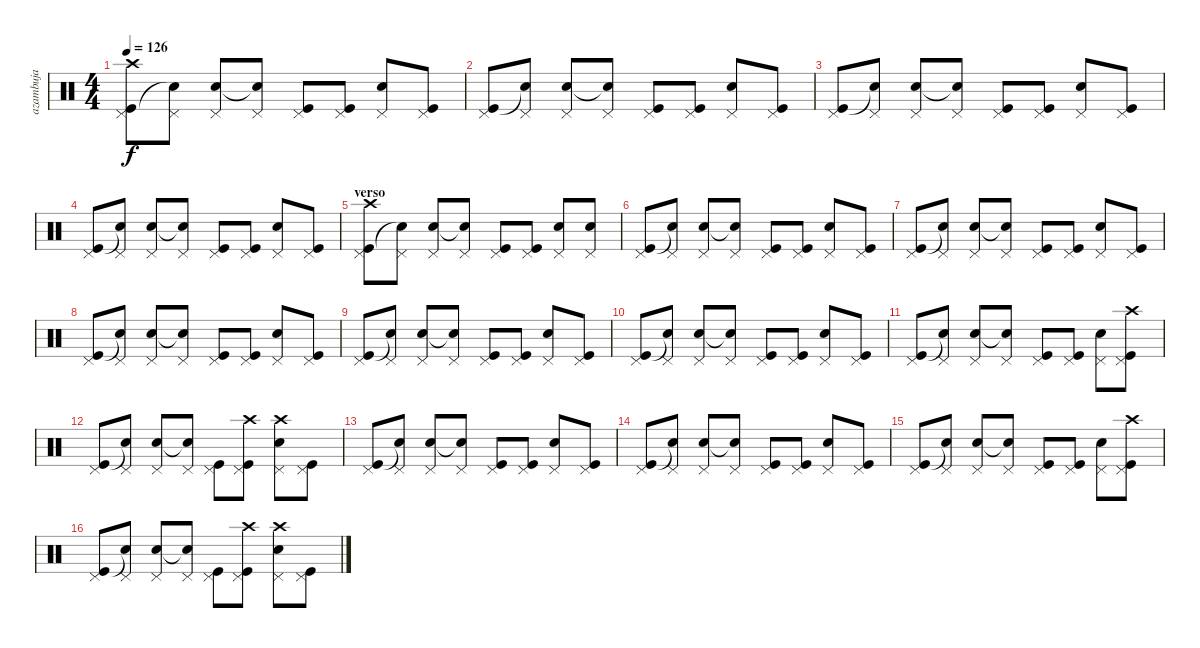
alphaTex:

\track ("azambuja" "azambuja") {instrument percussion}
\staff {score}
\articulation defaults
\ts (4 4)
\tempo 126
\clef neutral
\ks c
("Crash high (hit)" "Pedal Hi-Hat (hit)" "Kick (hit)").8{dy f} ("Pedal Hi-Hat (hit)" "Snare (hit)"{t}).8 ("Pedal Hi-Hat (hit)" "Snare (hit) 2").8 ("Pedal Hi-Hat (hit)" "Snare (hit) 2"{t}).8 ("Pedal Hi-Hat (hit)" "Kick (hit)").8 ("Pedal Hi-Hat (hit)" "Kick (hit)").8 ("Pedal Hi-Hat (hit)" "Snare (hit) 2").8 ("Pedal Hi-Hat (hit)" "Kick (hit)").8 |
("Pedal Hi-Hat (hit)" "Kick (hit)").8 ("Pedal Hi-Hat (hit)" "Snare (hit)"{t}).8 ("Pedal Hi-Hat (hit)" "Snare (hit) 2").8 ("Pedal Hi-Hat (hit)" "Snare (hit) 2"{t}).8 ("Pedal Hi-Hat (hit)" "Kick (hit)").8 ("Pedal Hi-Hat (hit)" "Kick (hit)").8 ("Pedal Hi-Hat (hit)" "Snare (hit) 2").8 ("Pedal Hi-Hat (hit)" "Kick (hit)").8 |
("Pedal Hi-Hat (hit)" "Kick (hit)").8 ("Pedal Hi-Hat (hit)" "Snare (hit)"{t}).8 ("Pedal Hi-Hat (hit)" "Snare (hit) 2").8 ("Pedal Hi-Hat (hit)" "Snare (hit) 2"{t}).8 ("Pedal Hi-Hat (hit)" "Kick (hit)").8 ("Pedal Hi-Hat (hit)" "Kick (hit)").8 ("Pedal Hi-Hat (hit)" "Snare (hit) 2").8 ("Pedal Hi-Hat (hit)" "Kick (hit)").8 |
("Pedal Hi-Hat (hit)" "Kick (hit)").8 ("Pedal Hi-Hat (hit)" "Snare (hit)"{t}).8 ("Pedal Hi-Hat (hit)" "Snare (hit) 2").8 ("Pedal Hi-Hat (hit)" "Snare (hit) 2"{t}).8 ("Pedal Hi-Hat (hit)" "Kick (hit)").8 ("Pedal Hi-Hat (hit)" "Kick (hit)").8 ("Pedal Hi-Hat (hit)" "Snare (hit) 2").8 ("Pedal Hi-Hat (hit)" "Kick (hit)").8 |
\section ("" "verso")
("Crash high (hit)" "Pedal Hi-Hat (hit)" "Kick (hit)").8 ("Pedal Hi-Hat (hit)" "Snare (hit)"{t}).8 ("Pedal Hi-Hat (hit)" "Snare (hit) 2").8 ("Pedal Hi-Hat (hit)" "Snare (hit) 2"{t}).8 ("Pedal Hi-Hat (hit)" "Kick (hit)").8 ("Pedal Hi-Hat (hit)" "Kick (hit)").8 ("Pedal Hi-Hat (hit)" "Snare (hit) 2").8 ("Pedal Hi-Hat (hit)" "Snare (hit) 2").8 |
("Pedal Hi-Hat (hit)" "Kick (hit)").8 ("Pedal Hi-Hat (hit)" "Snare (hit)"{t}).8 ("Pedal Hi-Hat (hit)" "Snare (hit) 2").8 ("Pedal Hi-Hat (hit)" "Snare (hit) 2"{t}).8 ("Pedal Hi-Hat (hit)" "Kick (hit)").8 ("Pedal Hi-Hat (hit)" "Kick (hit)").8 ("Pedal Hi-Hat (hit)" "Snare (hit) 2").8 ("Pedal Hi-Hat (hit)" "Kick (hit)").8 |
("Pedal Hi-Hat (hit)" "Kick (hit)").8 ("Pedal Hi-Hat (hit)" "Snare (hit)"{t}).8 ("Pedal Hi-Hat (hit)" "Snare (hit) 2").8 ("Pedal Hi-Hat (hit)" "Snare (hit) 2"{t}).8 ("Pedal Hi-Hat (hit)" "Kick (hit)").8 ("Pedal Hi-Hat (hit)" "Kick (hit)").8 ("Pedal Hi-Hat (hit)" "Snare (hit) 2").8 ("Pedal Hi-Hat (hit)" "Kick (hit)").8 |
("Pedal Hi-Hat (hit)" "Kick (hit)").8 ("Pedal Hi-Hat (hit)" "Snare (hit)"{t}).8 ("Pedal Hi-Hat (hit)" "Snare (hit) 2").8 ("Pedal Hi-Hat (hit)" "Snare (hit) 2"{t}).8 ("Pedal Hi-Hat (hit)" "Kick (hit)").8 ("Pedal Hi-Hat (hit)" "Kick (hit)").8 ("Pedal Hi-Hat (hit)" "Snare (hit) 2").8 ("Pedal Hi-Hat (hit)" "Kick (hit)").8 |
("Pedal Hi-Hat (hit)" "Kick (hit)").8 ("Pedal Hi-Hat (hit)" "Snare (hit)"{t}).8 ("Pedal Hi-Hat (hit)" "Snare (hit) 2").8 ("Pedal Hi-Hat (hit)" "Snare (hit) 2"{t}).8 ("Pedal Hi-Hat (hit)" "Kick (hit)").8 ("Pedal Hi-Hat (hit)" "Kick (hit)").8 ("Pedal Hi-Hat (hit)" "Snare (hit) 2").8 ("Pedal Hi-Hat (hit)" "Kick (hit)").8 |
("Pedal Hi-Hat (hit)" "Kick (hit)").8 ("Pedal Hi-Hat (hit)" "Snare (hit)"{t}).8 ("Pedal Hi-Hat (hit)" "Snare (hit) 2").8 ("Pedal Hi-Hat (hit)" "Snare (hit) 2"{t}).8 ("Pedal Hi-Hat (hit)" "Kick (hit)").8 ("Pedal Hi-Hat (hit)" "Kick (hit)").8 ("Pedal Hi-Hat (hit)" "Snare (hit) 2").8 ("Pedal Hi-Hat (hit)" "Kick (hit)").8 |
("Pedal Hi-Hat (hit)" "Kick (hit)").8 ("Pedal Hi-Hat (hit)" "Snare (hit)"{t}).8 ("Pedal Hi-Hat (hit)" "Snare (hit) 2").8 ("Pedal Hi-Hat (hit)" "Snare (hit) 2"{t}).8 ("Pedal Hi-Hat (hit)" "Kick (hit)").8 ("Pedal Hi-Hat (hit)" "Kick (hit)").8 ("Pedal Hi-Hat (hit)" "Snare (hit) 2").8 ("Crash high (hit)" "Pedal Hi-Hat (hit)" "Kick (hit)").8 |
("Pedal Hi-Hat (hit)" "Kick (hit)").8 ("Pedal Hi-Hat (hit)" "Snare (hit)"{t}).8 ("Pedal Hi-Hat (hit)" "Snare (hit) 2").8 ("Pedal Hi-Hat (hit)" "Snare (hit) 2"{t}).8 ("Pedal Hi-Hat (hit)" "Kick (hit)").8 ("Crash high (hit)" "Pedal Hi-Hat (hit)" "Kick (hit)").8 ("Crash high (hit)" "Pedal Hi-Hat (hit)" "Snare (hit) 2").8 ("Pedal Hi-Hat (hit)" "Kick (hit)").8 |
\section ("" "")
("Pedal Hi-Hat (hit)" "Kick (hit)").8 ("Pedal Hi-Hat (hit)" "Snare (hit)"{t}).8 ("Pedal Hi-Hat (hit)" "Snare (hit) 2").8 ("Pedal Hi-Hat (hit)" "Snare (hit) 2"{t}).8 ("Pedal Hi-Hat (hit)" "Kick (hit)").8 ("Pedal Hi-Hat (hit)" "Kick (hit)").8 ("Pedal Hi-Hat (hit)" "Snare (hit) 2").8 ("Pedal Hi-Hat (hit)" "Kick (hit)").8 |
("Pedal Hi-Hat (hit)" "Kick (hit)").8 ("Pedal Hi-Hat (hit)" "Snare (hit)"{t}).8 ("Pedal Hi-Hat (hit)" "Snare (hit) 2").8 ("Pedal Hi-Hat (hit)" "Snare (hit) 2"{t}).8 ("Pedal Hi-Hat (hit)" "Kick (hit)").8 ("Pedal Hi-Hat (hit)" "Kick (hit)").8 ("Pedal Hi-Hat (hit)" "Snare (hit) 2").8 ("Pedal Hi-Hat (hit)" "Kick (hit)").8 |
("Pedal Hi-Hat (hit)" "Kick (hit)").8 ("Pedal Hi-Hat (hit)" "Snare (hit)"{t}).8 ("Pedal Hi-Hat (hit)" "Snare (hit) 2").8 ("Pedal Hi-Hat (hit)" "Snare (hit) 2"{t}).8 ("Pedal Hi-Hat (hit)" "Kick (hit)").8 ("Pedal Hi-Hat (hit)" "Kick (hit)").8 ("Pedal Hi-Hat (hit)" "Snare (hit) 2").8 ("Crash high (hit)" "Pedal Hi-Hat (hit)" "Kick (hit)").8 |
("Pedal Hi-Hat (hit)" "Kick (hit)").8 ("Pedal Hi-Hat (hit)" "Snare (hit)"{t}).8 ("Pedal Hi-Hat (hit)" "Snare (hit) 2").8 ("Pedal Hi-Hat (hit)" "Snare (hit) 2"{t}).8 ("Pedal Hi-Hat (hit)" "Kick (hit)").8 ("Crash high (hit)" "Pedal Hi-Hat (hit)" "Kick (hit)").8 ("Crash high (hit)" "Pedal Hi-Hat (hit)" "Snare (hit) 2").8 ("Pedal Hi-Hat (hit)" "Kick (hit)").8
